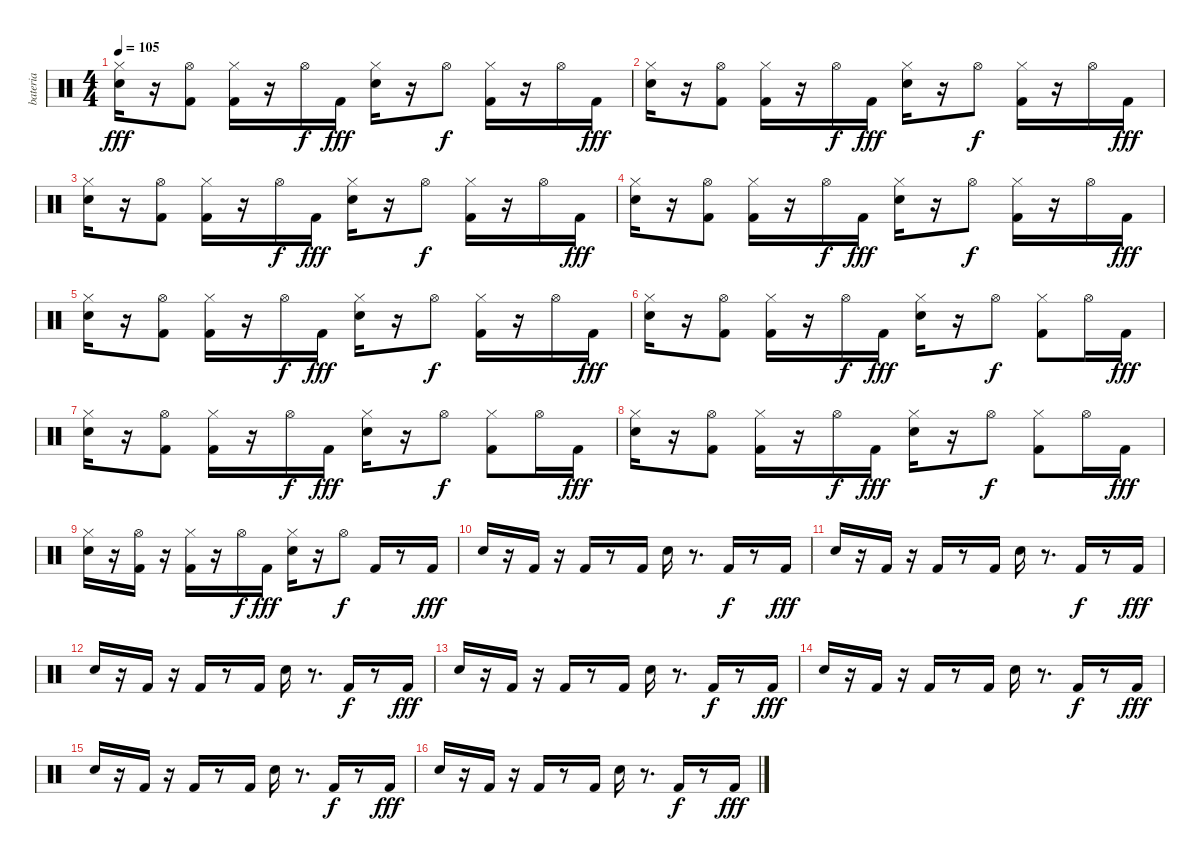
\track ("bateria" "bateria") {instrument percussion}
\staff {score}
\articulation defaults
\ts (4 4)
\tempo 105
\clef neutral
\ks c
("Snare (hit) 2" "Hi-Hat (closed)").16{dy fff} r.16 ("Kick (hit) 2" "Hi-Hat (open)").8 ("Kick (hit) 2" "Hi-Hat (closed)").16 r.16 "Hi-Hat (open)".16{dy f} "Kick (hit) 2".16{dy fff} ("Snare (hit) 2" "Hi-Hat (closed)").16 r.16 "Hi-Hat (open)".8{dy f} ("Hi-Hat (closed)" "Kick (hit) 2").16 r.16 "Hi-Hat (open)".16 "Kick (hit) 2".16{dy fff} |
("Snare (hit) 2" "Hi-Hat (closed)").16 r.16 ("Kick (hit) 2" "Hi-Hat (open)").8 ("Kick (hit) 2" "Hi-Hat (closed)").16 r.16 "Hi-Hat (open)".16{dy f} "Kick (hit) 2".16{dy fff} ("Snare (hit) 2" "Hi-Hat (closed)").16 r.16 "Hi-Hat (open)".8{dy f} ("Hi-Hat (closed)" "Kick (hit) 2").16 r.16 "Hi-Hat (open)".16 "Kick (hit) 2".16{dy fff} |
("Snare (hit) 2" "Hi-Hat (closed)").16 r.16 ("Kick (hit) 2" "Hi-Hat (open)").8 ("Kick (hit) 2" "Hi-Hat (closed)").16 r.16 "Hi-Hat (open)".16{dy f} "Kick (hit) 2".16{dy fff} ("Snare (hit) 2" "Hi-Hat (closed)").16 r.16 "Hi-Hat (open)".8{dy f} ("Hi-Hat (closed)" "Kick (hit) 2").16 r.16 "Hi-Hat (open)".16 "Kick (hit) 2".16{dy fff} |
("Snare (hit) 2" "Hi-Hat (closed)").16 r.16 ("Kick (hit) 2" "Hi-Hat (open)").8 ("Kick (hit) 2" "Hi-Hat (closed)").16 r.16 "Hi-Hat (open)".16{dy f} "Kick (hit) 2".16{dy fff} ("Snare (hit) 2" "Hi-Hat (closed)").16 r.16 "Hi-Hat (open)".8{dy f} ("Hi-Hat (closed)" "Kick (hit) 2").16 r.16 "Hi-Hat (open)".16 "Kick (hit) 2".16{dy fff} |
("Snare (hit) 2" "Hi-Hat (closed)").16 r.16 ("Kick (hit) 2" "Hi-Hat (open)").8 ("Kick (hit) 2" "Hi-Hat (closed)").16 r.16 "Hi-Hat (open)".16{dy f} "Kick (hit) 2".16{dy fff} ("Snare (hit) 2" "Hi-Hat (closed)").16 r.16 "Hi-Hat (open)".8{dy f} ("Hi-Hat (closed)" "Kick (hit) 2").16 r.16 "Hi-Hat (open)".16 "Kick (hit) 2".16{dy fff} |
("Snare (hit) 2" "Hi-Hat (closed)").16 r.16 ("Kick (hit) 2" "Hi-Hat (open)").8 ("Kick (hit) 2" "Hi-Hat (closed)").16 r.16 "Hi-Hat (open)".16{dy f} "Kick (hit) 2".16{dy fff} ("Snare (hit) 2" "Hi-Hat (closed)").16 r.16 "Hi-Hat (open)".8{dy f} ("Hi-Hat (closed)" "Kick (hit) 2").8 "Hi-Hat (open)".16 "Kick (hit) 2".16{dy fff} |
("Snare (hit) 2" "Hi-Hat (closed)").16 r.16 ("Kick (hit) 2" "Hi-Hat (open)").8 ("Kick (hit) 2" "Hi-Hat (closed)").16 r.16 "Hi-Hat (open)".16{dy f} "Kick (hit) 2".16{dy fff} ("Snare (hit) 2" "Hi-Hat (closed)").16 r.16 "Hi-Hat (open)".8{dy f} ("Hi-Hat (closed)" "Kick (hit) 2").8 "Hi-Hat (open)".16 "Kick (hit) 2".16{dy fff} |
("Snare (hit) 2" "Hi-Hat (closed)").16 r.16 ("Kick (hit) 2" "Hi-Hat (open)").8 ("Kick (hit) 2" "Hi-Hat (closed)").16 r.16 "Hi-Hat (open)".16{dy f} "Kick (hit) 2".16{dy fff} ("Snare (hit) 2" "Hi-Hat (closed)").16 r.16 "Hi-Hat (open)".8{dy f} ("Hi-Hat (closed)" "Kick (hit) 2").8 "Hi-Hat (open)".16 "Kick (hit) 2".16{dy fff} |
("Snare (hit) 2" "Hi-Hat (closed)").16 r.16 ("Kick (hit) 2" "Hi-Hat (open)").16 r.16 ("Kick (hit) 2" "Hi-Hat (closed)").16 r.16 "Hi-Hat (open)".16{dy f} "Kick (hit) 2".16{dy fff} ("Snare (hit) 2" "Hi-Hat (closed)").16 r.16 "Hi-Hat (open)".8{dy f} "Kick (hit) 2".16 r.8 "Kick (hit) 2".16{dy fff} |
"Snare (hit) 2".16 r.16 "Kick (hit) 2".16 r.16 "Kick (hit) 2".16 r.8 "Kick (hit) 2".16 "Snare (hit) 2".16 r.8{d} "Kick (hit) 2".16{dy f} r.8 "Kick (hit) 2".16{dy fff} |
"Snare (hit) 2".16 r.16 "Kick (hit) 2".16 r.16 "Kick (hit) 2".16 r.8 "Kick (hit) 2".16 "Snare (hit) 2".16 r.8{d} "Kick (hit) 2".16{dy f} r.8 "Kick (hit) 2".16{dy fff} |
"Snare (hit) 2".16 r.16 "Kick (hit) 2".16 r.16 "Kick (hit) 2".16 r.8 "Kick (hit) 2".16 "Snare (hit) 2".16 r.8{d} "Kick (hit) 2".16{dy f} r.8 "Kick (hit) 2".16{dy fff} |
"Snare (hit) 2".16 r.16 "Kick (hit) 2".16 r.16 "Kick (hit) 2".16 r.8 "Kick (hit) 2".16 "Snare (hit) 2".16 r.8{d} "Kick (hit) 2".16{dy f} r.8 "Kick (hit) 2".16{dy fff} |
"Snare (hit) 2".16 r.16 "Kick (hit) 2".16 r.16 "Kick (hit) 2".16 r.8 "Kick (hit) 2".16 "Snare (hit) 2".16 r.8{d} "Kick (hit) 2".16{dy f} r.8 "Kick (hit) 2".16{dy fff} |
"Snare (hit) 2".16 r.16 "Kick (hit) 2".16 r.16 "Kick (hit) 2".16 r.8 "Kick (hit) 2".16 "Snare (hit) 2".16 r.8{d} "Kick (hit) 2".16{dy f} r.8 "Kick (hit) 2".16{dy fff} |
"Snare (hit) 2".16 r.16 "Kick (hit) 2".16 r.16 "Kick (hit) 2".16 r.8 "Kick (hit) 2".16 "Snare (hit) 2".16 r.8{d} "Kick (hit) 2".16{dy f} r.8 "Kick (hit) 2".16{dy fff}
